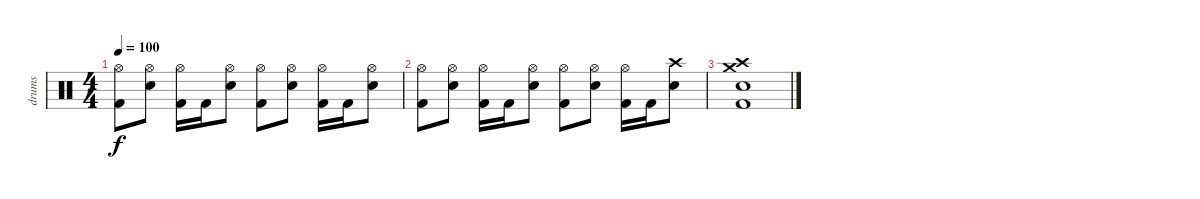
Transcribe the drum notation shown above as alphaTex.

\track ("drums" "drums") {instrument percussion}
\staff {score}
\articulation defaults
\ts (4 4)
\tempo 100
\clef neutral
\ks c
("Hi-Hat (open)" "Kick (hit) 2").8{dy f} ("Hi-Hat (open)" "Electric Snare (hit)").8 ("Hi-Hat (open)" "Kick (hit) 2").16 "Kick (hit) 2".16 ("Hi-Hat (open)" "Electric Snare (hit)").8 ("Hi-Hat (open)" "Kick (hit) 2").8 ("Hi-Hat (open)" "Electric Snare (hit)").8 ("Hi-Hat (open)" "Kick (hit) 2").16 "Kick (hit) 2".16 ("Hi-Hat (open)" "Electric Snare (hit)").8 |
("Hi-Hat (open)" "Kick (hit) 2").8 ("Hi-Hat (open)" "Electric Snare (hit)").8 ("Hi-Hat (open)" "Kick (hit) 2").16 "Kick (hit) 2".16 ("Hi-Hat (open)" "Electric Snare (hit)").8 ("Hi-Hat (open)" "Kick (hit) 2").8 ("Hi-Hat (open)" "Electric Snare (hit)").8 ("Hi-Hat (open)" "Kick (hit) 2").16 "Kick (hit) 2".16 ("Crash high (hit)" "Electric Snare (hit)").8 |
("Crash high (hit)" "Crash medium (hit)" "Electric Snare (hit)" "Kick (hit) 2").1
